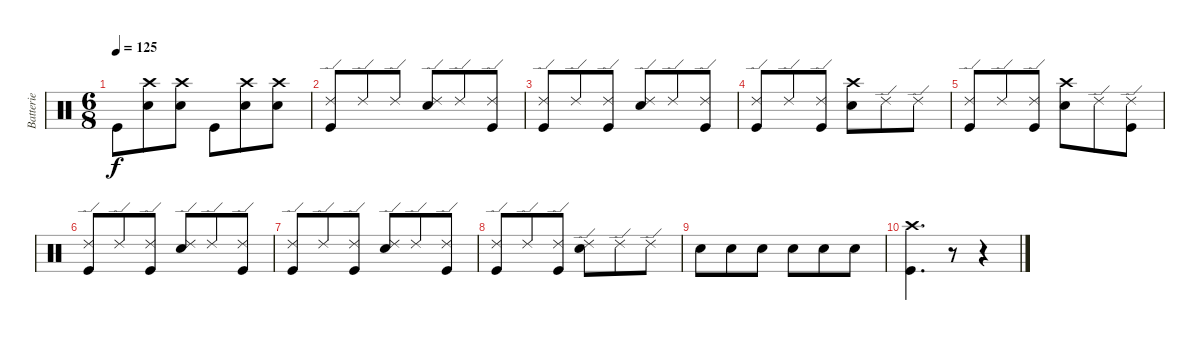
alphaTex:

\track ("Batterie" "Batterie") {instrument percussion}
\staff {score}
\articulation defaults
\ts (6 8)
\tempo 125
\clef neutral
\ks c "Kick (hit)".8{dy f}
("Crash high (hit)" "Snare (hit) 2").8 ("Crash high (hit)" "Snare (hit) 2").8 "Kick (hit)".8 ("Crash high (hit)" "Snare (hit) 2").8 ("Crash high (hit)" "Snare (hit) 2").8 |
("Ride (edge) 2" "Kick (hit)").8 "Ride (edge) 2".8 "Ride (edge) 2".8 ("Ride (edge) 2" "Snare (hit) 2").8 "Ride (edge) 2".8 ("Ride (edge) 2" "Kick (hit)").8 |
("Ride (edge) 2" "Kick (hit)").8 "Ride (edge) 2".8 ("Ride (edge) 2" "Kick (hit)").8 ("Ride (edge) 2" "Snare (hit) 2").8 "Ride (edge) 2".8 ("Ride (edge) 2" "Kick (hit)").8 |
("Ride (edge) 2" "Kick (hit)").8 "Ride (edge) 2".8 ("Ride (edge) 2" "Kick (hit)").8 ("Crash high (hit)" "Snare (hit) 2").8 "Ride (edge) 2".8 "Ride (edge) 2".8 |
("Ride (edge) 2" "Kick (hit)").8 "Ride (edge) 2".8 ("Ride (edge) 2" "Kick (hit)").8 ("Crash high (hit)" "Snare (hit) 2").8 "Ride (edge) 2".8 ("Ride (edge) 2" "Kick (hit)").8 |
("Ride (edge) 2" "Kick (hit)").8 "Ride (edge) 2".8 ("Ride (edge) 2" "Kick (hit)").8 ("Ride (edge) 2" "Snare (hit) 2").8 "Ride (edge) 2".8 ("Ride (edge) 2" "Kick (hit)").8 |
("Ride (edge) 2" "Kick (hit)").8 "Ride (edge) 2".8 ("Ride (edge) 2" "Kick (hit)").8 ("Ride (edge) 2" "Snare (hit) 2").8 "Ride (edge) 2".8 ("Ride (edge) 2" "Kick (hit)").8 |
("Ride (edge) 2" "Kick (hit)").8 "Ride (edge) 2".8 ("Ride (edge) 2" "Kick (hit)").8 ("Ride (edge) 2" "Snare (hit) 2").8 "Ride (edge) 2".8 "Ride (edge) 2".8 |
"Snare (hit) 2".8 "Snare (hit) 2".8 "Snare (hit) 2".8 "Snare (hit) 2".8 "Snare (hit) 2".8 "Snare (hit) 2".8 |
("Crash high (hit)" "Kick (hit)").4{d} r.8 r.4
